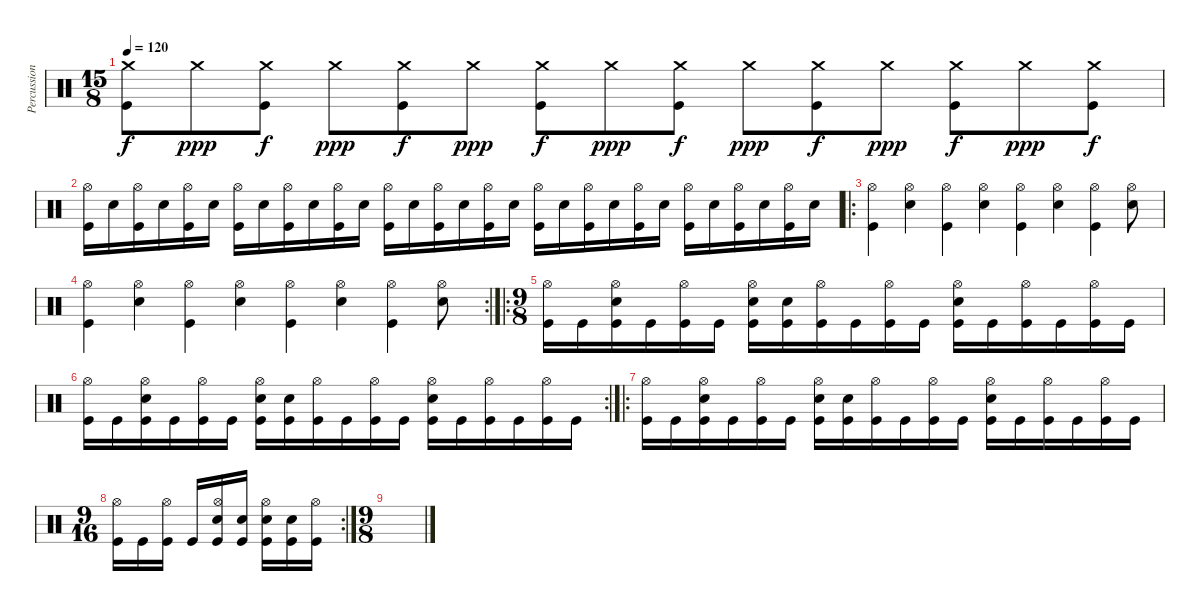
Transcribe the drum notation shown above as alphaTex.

\track ("Percussion" "Percussion") {instrument percussion}
\staff {score}
\articulation defaults
\ts (15 8)
\tempo 120
\clef neutral
\ks c
("Crash medium (hit)" "Kick (hit)").8{dy f} "Crash medium (hit)".8{dy ppp} ("Crash medium (hit)" "Kick (hit)").8{dy f} "Crash medium (hit)".8{dy ppp} ("Crash medium (hit)" "Kick (hit)").8{dy f} "Crash medium (hit)".8{dy ppp} ("Crash medium (hit)" "Kick (hit)").8{dy f} "Crash medium (hit)".8{dy ppp} ("Crash medium (hit)" "Kick (hit)").8{dy f} "Crash medium (hit)".8{dy ppp} ("Crash medium (hit)" "Kick (hit)").8{dy f} "Crash medium (hit)".8{dy ppp} ("Crash medium (hit)" "Kick (hit)").8{dy f} "Crash medium (hit)".8{dy ppp} ("Crash medium (hit)" "Kick (hit)").8{dy f} |
("Hi-Hat (open)" "Kick (hit)").16 "Snare (hit) 2".16 ("Hi-Hat (open)" "Kick (hit)").16 "Snare (hit) 2".16 ("Hi-Hat (open)" "Kick (hit)").16 "Snare (hit) 2".16 ("Hi-Hat (open)" "Kick (hit)").16 "Snare (hit) 2".16 ("Hi-Hat (open)" "Kick (hit)").16 "Snare (hit) 2".16 ("Hi-Hat (open)" "Kick (hit)").16 "Snare (hit) 2".16 ("Hi-Hat (open)" "Kick (hit)").16 "Snare (hit) 2".16 ("Hi-Hat (open)" "Kick (hit)").16 "Snare (hit) 2".16 ("Hi-Hat (open)" "Kick (hit)").16 "Snare (hit) 2".16 ("Hi-Hat (open)" "Kick (hit)").16 "Snare (hit) 2".16 ("Hi-Hat (open)" "Kick (hit)").16 "Snare (hit) 2".16 ("Hi-Hat (open)" "Kick (hit)").16 "Snare (hit) 2".16 ("Hi-Hat (open)" "Kick (hit)").16 "Snare (hit) 2".16 ("Hi-Hat (open)" "Kick (hit)").16 "Snare (hit) 2".16 ("Hi-Hat (open)" "Kick (hit)").16 "Snare (hit) 2".16 |
\ro
("Hi-Hat (open)" "Kick (hit)").4 ("Hi-Hat (open)" "Snare (hit) 2").4 ("Hi-Hat (open)" "Kick (hit)").4 ("Hi-Hat (open)" "Snare (hit) 2").4 ("Hi-Hat (open)" "Kick (hit)").4 ("Hi-Hat (open)" "Snare (hit) 2").4 ("Hi-Hat (open)" "Kick (hit)").4 ("Hi-Hat (open)" "Snare (hit) 2").8 |
\rc 2
("Hi-Hat (open)" "Kick (hit)").4 ("Hi-Hat (open)" "Snare (hit) 2").4 ("Hi-Hat (open)" "Kick (hit)").4 ("Hi-Hat (open)" "Snare (hit) 2").4 ("Hi-Hat (open)" "Kick (hit)").4 ("Hi-Hat (open)" "Snare (hit) 2").4 ("Hi-Hat (open)" "Kick (hit)").4 ("Hi-Hat (open)" "Snare (hit) 2").8 |
\ro
\ts (9 8)
("Hi-Hat (open)" "Kick (hit)").16 "Kick (hit)".16 ("Hi-Hat (open)" "Snare (hit) 2" "Kick (hit)").16 "Kick (hit)".16 ("Hi-Hat (open)" "Kick (hit)").16 "Kick (hit)".16 ("Hi-Hat (open)" "Snare (hit) 2" "Kick (hit)").16 ("Snare (hit) 2" "Kick (hit)").16 ("Hi-Hat (open)" "Kick (hit)").16 "Kick (hit)".16 ("Hi-Hat (open)" "Kick (hit)").16 "Kick (hit)".16 ("Hi-Hat (open)" "Snare (hit) 2" "Kick (hit)").16 "Kick (hit)".16 ("Hi-Hat (open)" "Kick (hit)").16 "Kick (hit)".16 ("Hi-Hat (open)" "Kick (hit)").16 "Kick (hit)".16 |
\rc 2
("Hi-Hat (open)" "Kick (hit)").16 "Kick (hit)".16 ("Hi-Hat (open)" "Snare (hit) 2" "Kick (hit)").16 "Kick (hit)".16 ("Hi-Hat (open)" "Kick (hit)").16 "Kick (hit)".16 ("Hi-Hat (open)" "Snare (hit) 2" "Kick (hit)").16 ("Snare (hit) 2" "Kick (hit)").16 ("Hi-Hat (open)" "Kick (hit)").16 "Kick (hit)".16 ("Hi-Hat (open)" "Kick (hit)").16 "Kick (hit)".16 ("Hi-Hat (open)" "Snare (hit) 2" "Kick (hit)").16 "Kick (hit)".16 ("Hi-Hat (open)" "Kick (hit)").16 "Kick (hit)".16 ("Hi-Hat (open)" "Kick (hit)").16 "Kick (hit)".16 |
\ro
("Hi-Hat (open)" "Kick (hit)").16 "Kick (hit)".16 ("Hi-Hat (open)" "Snare (hit) 2" "Kick (hit)").16 "Kick (hit)".16 ("Hi-Hat (open)" "Kick (hit)").16 "Kick (hit)".16 ("Hi-Hat (open)" "Snare (hit) 2" "Kick (hit)").16 ("Snare (hit) 2" "Kick (hit)").16 ("Hi-Hat (open)" "Kick (hit)").16 "Kick (hit)".16 ("Hi-Hat (open)" "Kick (hit)").16 "Kick (hit)".16 ("Hi-Hat (open)" "Snare (hit) 2" "Kick (hit)").16 "Kick (hit)".16 ("Hi-Hat (open)" "Kick (hit)").16 "Kick (hit)".16 ("Hi-Hat (open)" "Kick (hit)").16 "Kick (hit)".16 |
\rc 2
\ts (9 16)
("Hi-Hat (open)" "Kick (hit)").16 "Kick (hit)".16 ("Hi-Hat (open)" "Kick (hit)").16 "Kick (hit)".16 ("Hi-Hat (open)" "Snare (hit) 2" "Kick (hit)").16 ("Snare (hit) 2" "Kick (hit)").16 ("Hi-Hat (open)" "Snare (hit) 2" "Kick (hit)").16 ("Snare (hit) 2" "Kick (hit)").16 ("Hi-Hat (open)" "Kick (hit)").16 |
\ts (9 8)
